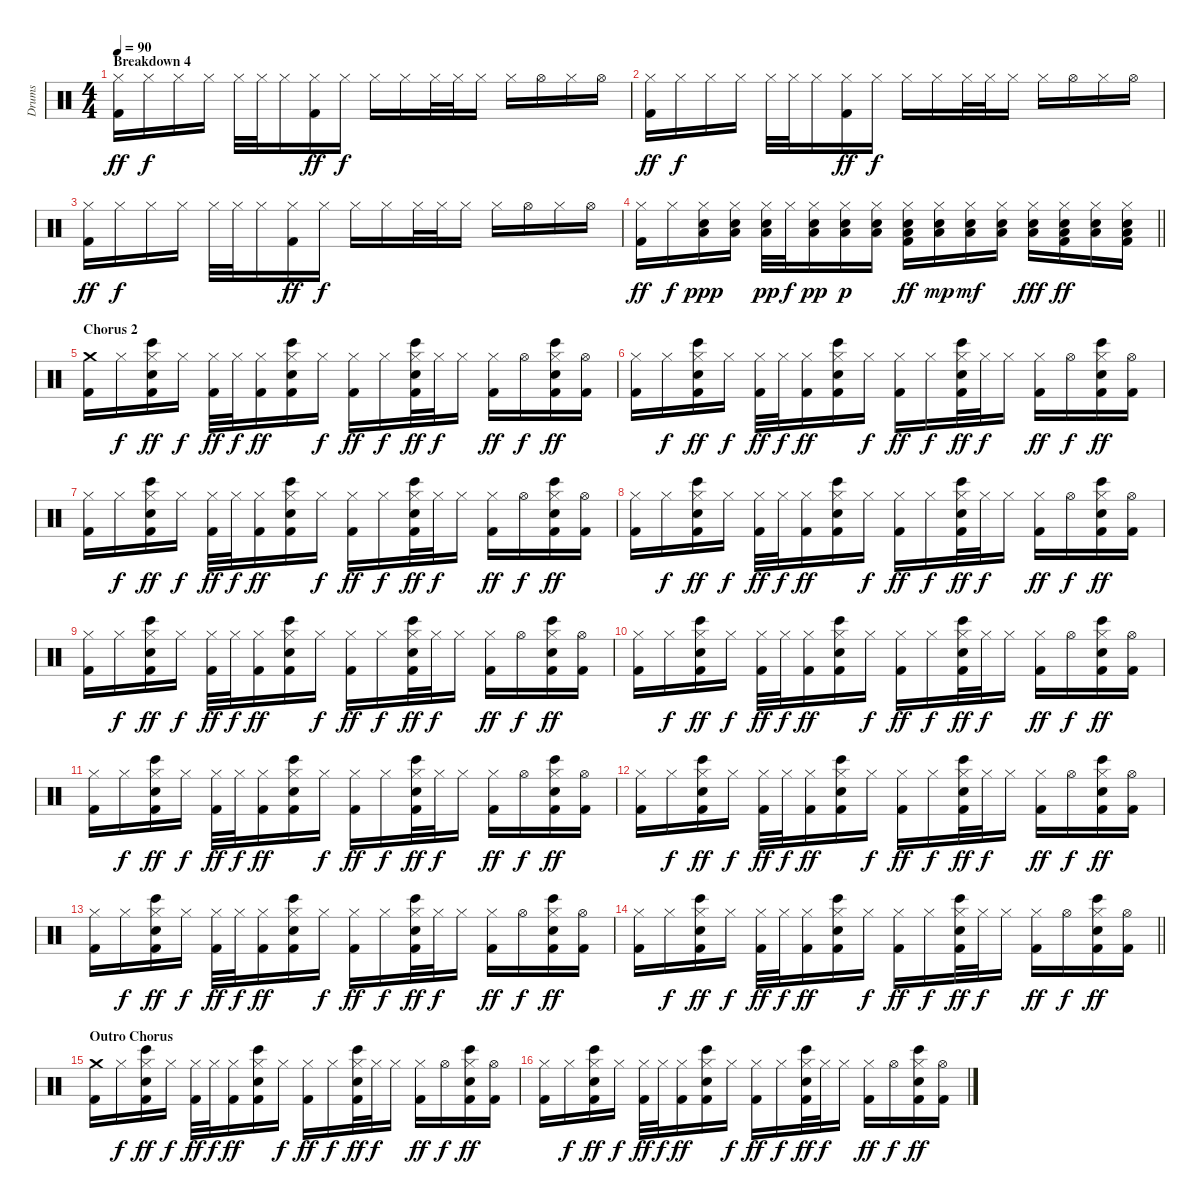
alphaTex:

\track ("Drums" "Drums") {instrument percussion}
\staff {score}
\articulation defaults
\ts (4 4)
\section ("" "Breakdown 4")
\tempo 90
\clef neutral
\ks c
("Hi-Hat (closed)" "Kick (hit) 2").16{dy ff} "Hi-Hat (closed)".16{dy f} "Hi-Hat (closed)".16 "Hi-Hat (closed)".16 "Hi-Hat (closed)".32 "Hi-Hat (closed)".32 "Hi-Hat (closed)".16 ("Hi-Hat (closed)" "Kick (hit) 2").16{dy ff} "Hi-Hat (closed)".16{dy f} "Hi-Hat (closed)".16 "Hi-Hat (closed)".16 "Hi-Hat (closed)".32 "Hi-Hat (closed)".32 "Hi-Hat (closed)".16 "Hi-Hat (closed)".16 "Hi-Hat (open)".16 "Hi-Hat (closed)".16 "Hi-Hat (open)".16 |
("Hi-Hat (closed)" "Kick (hit) 2").16{dy ff} "Hi-Hat (closed)".16{dy f} "Hi-Hat (closed)".16 "Hi-Hat (closed)".16 "Hi-Hat (closed)".32 "Hi-Hat (closed)".32 "Hi-Hat (closed)".16 ("Hi-Hat (closed)" "Kick (hit) 2").16{dy ff} "Hi-Hat (closed)".16{dy f} "Hi-Hat (closed)".16 "Hi-Hat (closed)".16 "Hi-Hat (closed)".32 "Hi-Hat (closed)".32 "Hi-Hat (closed)".16 "Hi-Hat (closed)".16 "Hi-Hat (open)".16 "Hi-Hat (closed)".16 "Hi-Hat (open)".16 |
("Hi-Hat (closed)" "Kick (hit) 2").16{dy ff} "Hi-Hat (closed)".16{dy f} "Hi-Hat (closed)".16 "Hi-Hat (closed)".16 "Hi-Hat (closed)".32 "Hi-Hat (closed)".32 "Hi-Hat (closed)".16 ("Hi-Hat (closed)" "Kick (hit) 2").16{dy ff} "Hi-Hat (closed)".16{dy f} "Hi-Hat (closed)".16 "Hi-Hat (closed)".16 "Hi-Hat (closed)".32 "Hi-Hat (closed)".32 "Hi-Hat (closed)".16 "Hi-Hat (closed)".16 "Hi-Hat (open)".16 "Hi-Hat (closed)".16 "Hi-Hat (open)".16 |
\barLineRight lightlight
("Hi-Hat (closed)" "Kick (hit) 2").16{dy ff} "Hi-Hat (closed)".16{dy f} ("Hi-Hat (closed)" "Low Tom (hit)" "Electric Snare (hit)").16{dy ppp} ("Hi-Hat (closed)" "Low Tom (hit)" "Electric Snare (hit)").16 ("Hi-Hat (closed)" "Low Tom (hit)" "Electric Snare (hit)").32{dy pp} "Hi-Hat (closed)".32{dy f} ("Hi-Hat (closed)" "Low Tom (hit)" "Electric Snare (hit)").16{dy pp} ("Hi-Hat (closed)" "Low Tom (hit)" "Electric Snare (hit)").16{dy p} ("Hi-Hat (closed)" "Low Tom (hit)" "Electric Snare (hit)").16 ("Hi-Hat (closed)" "Low Tom (hit)" "Electric Snare (hit)" "Kick (hit) 2").16{dy ff} ("Hi-Hat (closed)" "Low Tom (hit)" "Electric Snare (hit)").16{dy mp} ("Hi-Hat (closed)" "Low Tom (hit)" "Electric Snare (hit)").16{dy mf} ("Hi-Hat (closed)" "Low Tom (hit)" "Electric Snare (hit)").16 ("Hi-Hat (closed)" "Low Tom (hit)" "Electric Snare (hit)").16{dy fff volume 16} ("Hi-Hat (closed)" "Low Tom (hit)" "Electric Snare (hit)" "Kick (hit) 2").16{dy ff} ("Hi-Hat (closed)" "Low Tom (hit)" "Electric Snare (hit)").16 ("Hi-Hat (closed)" "Low Tom (hit)" "Electric Snare (hit)" "Kick (hit) 2").16 |
\section ("" "Chorus 2")
("Crash medium (hit)" "Kick (hit) 2").16{volume 14} "Hi-Hat (closed)".16{dy f} ("Hi-Hat (closed)" "Electric Snare (hit)" "Bongo High (hit)" "Kick (hit) 2").16{dy ff} "Hi-Hat (closed)".16{dy f} ("Hi-Hat (closed)" "Kick (hit) 2").32{dy ff} "Hi-Hat (closed)".32{dy f} ("Hi-Hat (closed)" "Kick (hit) 2").16{dy ff} ("Hi-Hat (closed)" "Electric Snare (hit)" "Bongo High (hit)" "Kick (hit) 2").16 "Hi-Hat (closed)".16{dy f} ("Hi-Hat (closed)" "Kick (hit) 2").16{dy ff} "Hi-Hat (closed)".16{dy f} ("Hi-Hat (closed)" "Electric Snare (hit)" "Bongo High (hit)" "Kick (hit) 2").32{dy ff} "Hi-Hat (closed)".32{dy f} "Hi-Hat (closed)".16 ("Hi-Hat (closed)" "Kick (hit) 2").16{dy ff} "Hi-Hat (open)".16{dy f} ("Hi-Hat (closed)" "Electric Snare (hit)" "Bongo High (hit)" "Kick (hit) 2").16{dy ff} ("Hi-Hat (open)" "Kick (hit) 2").16 |
("Hi-Hat (closed)" "Kick (hit) 2").16 "Hi-Hat (closed)".16{dy f} ("Hi-Hat (closed)" "Electric Snare (hit)" "Bongo High (hit)" "Kick (hit) 2").16{dy ff} "Hi-Hat (closed)".16{dy f} ("Hi-Hat (closed)" "Kick (hit) 2").32{dy ff} "Hi-Hat (closed)".32{dy f} ("Hi-Hat (closed)" "Kick (hit) 2").16{dy ff} ("Hi-Hat (closed)" "Electric Snare (hit)" "Bongo High (hit)" "Kick (hit) 2").16 "Hi-Hat (closed)".16{dy f} ("Hi-Hat (closed)" "Kick (hit) 2").16{dy ff} "Hi-Hat (closed)".16{dy f} ("Hi-Hat (closed)" "Electric Snare (hit)" "Bongo High (hit)" "Kick (hit) 2").32{dy ff} "Hi-Hat (closed)".32{dy f} "Hi-Hat (closed)".16 ("Hi-Hat (closed)" "Kick (hit) 2").16{dy ff} "Hi-Hat (open)".16{dy f} ("Hi-Hat (closed)" "Electric Snare (hit)" "Bongo High (hit)" "Kick (hit) 2").16{dy ff} ("Hi-Hat (open)" "Kick (hit) 2").16 |
("Hi-Hat (closed)" "Kick (hit) 2").16 "Hi-Hat (closed)".16{dy f} ("Hi-Hat (closed)" "Electric Snare (hit)" "Bongo High (hit)" "Kick (hit) 2").16{dy ff} "Hi-Hat (closed)".16{dy f} ("Hi-Hat (closed)" "Kick (hit) 2").32{dy ff} "Hi-Hat (closed)".32{dy f} ("Hi-Hat (closed)" "Kick (hit) 2").16{dy ff} ("Hi-Hat (closed)" "Electric Snare (hit)" "Bongo High (hit)" "Kick (hit) 2").16 "Hi-Hat (closed)".16{dy f} ("Hi-Hat (closed)" "Kick (hit) 2").16{dy ff} "Hi-Hat (closed)".16{dy f} ("Hi-Hat (closed)" "Electric Snare (hit)" "Bongo High (hit)" "Kick (hit) 2").32{dy ff} "Hi-Hat (closed)".32{dy f} "Hi-Hat (closed)".16 ("Hi-Hat (closed)" "Kick (hit) 2").16{dy ff} "Hi-Hat (open)".16{dy f} ("Hi-Hat (closed)" "Electric Snare (hit)" "Bongo High (hit)" "Kick (hit) 2").16{dy ff} ("Hi-Hat (open)" "Kick (hit) 2").16 |
("Hi-Hat (closed)" "Kick (hit) 2").16 "Hi-Hat (closed)".16{dy f} ("Hi-Hat (closed)" "Electric Snare (hit)" "Bongo High (hit)" "Kick (hit) 2").16{dy ff} "Hi-Hat (closed)".16{dy f} ("Hi-Hat (closed)" "Kick (hit) 2").32{dy ff} "Hi-Hat (closed)".32{dy f} ("Hi-Hat (closed)" "Kick (hit) 2").16{dy ff} ("Hi-Hat (closed)" "Electric Snare (hit)" "Bongo High (hit)" "Kick (hit) 2").16 "Hi-Hat (closed)".16{dy f} ("Hi-Hat (closed)" "Kick (hit) 2").16{dy ff} "Hi-Hat (closed)".16{dy f} ("Hi-Hat (closed)" "Electric Snare (hit)" "Bongo High (hit)" "Kick (hit) 2").32{dy ff} "Hi-Hat (closed)".32{dy f} "Hi-Hat (closed)".16 ("Hi-Hat (closed)" "Kick (hit) 2").16{dy ff} "Hi-Hat (open)".16{dy f} ("Hi-Hat (closed)" "Electric Snare (hit)" "Bongo High (hit)" "Kick (hit) 2").16{dy ff} ("Hi-Hat (open)" "Kick (hit) 2").16 |
("Hi-Hat (closed)" "Kick (hit) 2").16 "Hi-Hat (closed)".16{dy f} ("Hi-Hat (closed)" "Electric Snare (hit)" "Bongo High (hit)" "Kick (hit) 2").16{dy ff} "Hi-Hat (closed)".16{dy f} ("Hi-Hat (closed)" "Kick (hit) 2").32{dy ff} "Hi-Hat (closed)".32{dy f} ("Hi-Hat (closed)" "Kick (hit) 2").16{dy ff} ("Hi-Hat (closed)" "Electric Snare (hit)" "Bongo High (hit)" "Kick (hit) 2").16 "Hi-Hat (closed)".16{dy f} ("Hi-Hat (closed)" "Kick (hit) 2").16{dy ff} "Hi-Hat (closed)".16{dy f} ("Hi-Hat (closed)" "Electric Snare (hit)" "Bongo High (hit)" "Kick (hit) 2").32{dy ff} "Hi-Hat (closed)".32{dy f} "Hi-Hat (closed)".16 ("Hi-Hat (closed)" "Kick (hit) 2").16{dy ff} "Hi-Hat (open)".16{dy f} ("Hi-Hat (closed)" "Electric Snare (hit)" "Bongo High (hit)" "Kick (hit) 2").16{dy ff} ("Hi-Hat (open)" "Kick (hit) 2").16 |
("Hi-Hat (closed)" "Kick (hit) 2").16 "Hi-Hat (closed)".16{dy f} ("Hi-Hat (closed)" "Electric Snare (hit)" "Bongo High (hit)" "Kick (hit) 2").16{dy ff} "Hi-Hat (closed)".16{dy f} ("Hi-Hat (closed)" "Kick (hit) 2").32{dy ff} "Hi-Hat (closed)".32{dy f} ("Hi-Hat (closed)" "Kick (hit) 2").16{dy ff} ("Hi-Hat (closed)" "Electric Snare (hit)" "Bongo High (hit)" "Kick (hit) 2").16 "Hi-Hat (closed)".16{dy f} ("Hi-Hat (closed)" "Kick (hit) 2").16{dy ff} "Hi-Hat (closed)".16{dy f} ("Hi-Hat (closed)" "Electric Snare (hit)" "Bongo High (hit)" "Kick (hit) 2").32{dy ff} "Hi-Hat (closed)".32{dy f} "Hi-Hat (closed)".16 ("Hi-Hat (closed)" "Kick (hit) 2").16{dy ff} "Hi-Hat (open)".16{dy f} ("Hi-Hat (closed)" "Electric Snare (hit)" "Bongo High (hit)" "Kick (hit) 2").16{dy ff} ("Hi-Hat (open)" "Kick (hit) 2").16 |
("Hi-Hat (closed)" "Kick (hit) 2").16 "Hi-Hat (closed)".16{dy f} ("Hi-Hat (closed)" "Electric Snare (hit)" "Bongo High (hit)" "Kick (hit) 2").16{dy ff} "Hi-Hat (closed)".16{dy f} ("Hi-Hat (closed)" "Kick (hit) 2").32{dy ff} "Hi-Hat (closed)".32{dy f} ("Hi-Hat (closed)" "Kick (hit) 2").16{dy ff} ("Hi-Hat (closed)" "Electric Snare (hit)" "Bongo High (hit)" "Kick (hit) 2").16 "Hi-Hat (closed)".16{dy f} ("Hi-Hat (closed)" "Kick (hit) 2").16{dy ff} "Hi-Hat (closed)".16{dy f} ("Hi-Hat (closed)" "Electric Snare (hit)" "Bongo High (hit)" "Kick (hit) 2").32{dy ff} "Hi-Hat (closed)".32{dy f} "Hi-Hat (closed)".16 ("Hi-Hat (closed)" "Kick (hit) 2").16{dy ff} "Hi-Hat (open)".16{dy f} ("Hi-Hat (closed)" "Electric Snare (hit)" "Bongo High (hit)" "Kick (hit) 2").16{dy ff} ("Hi-Hat (open)" "Kick (hit) 2").16 |
("Hi-Hat (closed)" "Kick (hit) 2").16 "Hi-Hat (closed)".16{dy f} ("Hi-Hat (closed)" "Electric Snare (hit)" "Bongo High (hit)" "Kick (hit) 2").16{dy ff} "Hi-Hat (closed)".16{dy f} ("Hi-Hat (closed)" "Kick (hit) 2").32{dy ff} "Hi-Hat (closed)".32{dy f} ("Hi-Hat (closed)" "Kick (hit) 2").16{dy ff} ("Hi-Hat (closed)" "Electric Snare (hit)" "Bongo High (hit)" "Kick (hit) 2").16 "Hi-Hat (closed)".16{dy f} ("Hi-Hat (closed)" "Kick (hit) 2").16{dy ff} "Hi-Hat (closed)".16{dy f} ("Hi-Hat (closed)" "Electric Snare (hit)" "Bongo High (hit)" "Kick (hit) 2").32{dy ff} "Hi-Hat (closed)".32{dy f} "Hi-Hat (closed)".16 ("Hi-Hat (closed)" "Kick (hit) 2").16{dy ff} "Hi-Hat (open)".16{dy f} ("Hi-Hat (closed)" "Electric Snare (hit)" "Bongo High (hit)" "Kick (hit) 2").16{dy ff} ("Hi-Hat (open)" "Kick (hit) 2").16 |
("Hi-Hat (closed)" "Kick (hit) 2").16 "Hi-Hat (closed)".16{dy f} ("Hi-Hat (closed)" "Electric Snare (hit)" "Bongo High (hit)" "Kick (hit) 2").16{dy ff} "Hi-Hat (closed)".16{dy f} ("Hi-Hat (closed)" "Kick (hit) 2").32{dy ff} "Hi-Hat (closed)".32{dy f} ("Hi-Hat (closed)" "Kick (hit) 2").16{dy ff} ("Hi-Hat (closed)" "Electric Snare (hit)" "Bongo High (hit)" "Kick (hit) 2").16 "Hi-Hat (closed)".16{dy f} ("Hi-Hat (closed)" "Kick (hit) 2").16{dy ff} "Hi-Hat (closed)".16{dy f} ("Hi-Hat (closed)" "Electric Snare (hit)" "Bongo High (hit)" "Kick (hit) 2").32{dy ff} "Hi-Hat (closed)".32{dy f} "Hi-Hat (closed)".16 ("Hi-Hat (closed)" "Kick (hit) 2").16{dy ff} "Hi-Hat (open)".16{dy f} ("Hi-Hat (closed)" "Electric Snare (hit)" "Bongo High (hit)" "Kick (hit) 2").16{dy ff} ("Hi-Hat (open)" "Kick (hit) 2").16 |
\barLineRight lightlight
("Hi-Hat (closed)" "Kick (hit) 2").16 "Hi-Hat (closed)".16{dy f} ("Hi-Hat (closed)" "Electric Snare (hit)" "Bongo High (hit)" "Kick (hit) 2").16{dy ff} "Hi-Hat (closed)".16{dy f} ("Hi-Hat (closed)" "Kick (hit) 2").32{dy ff} "Hi-Hat (closed)".32{dy f} ("Hi-Hat (closed)" "Kick (hit) 2").16{dy ff} ("Hi-Hat (closed)" "Electric Snare (hit)" "Bongo High (hit)" "Kick (hit) 2").16 "Hi-Hat (closed)".16{dy f} ("Hi-Hat (closed)" "Kick (hit) 2").16{dy ff} "Hi-Hat (closed)".16{dy f} ("Hi-Hat (closed)" "Electric Snare (hit)" "Bongo High (hit)" "Kick (hit) 2").32{dy ff} "Hi-Hat (closed)".32{dy f} "Hi-Hat (closed)".16 ("Hi-Hat (closed)" "Kick (hit) 2").16{dy ff} "Hi-Hat (open)".16{dy f} ("Hi-Hat (closed)" "Electric Snare (hit)" "Bongo High (hit)" "Kick (hit) 2").16{dy ff} ("Hi-Hat (open)" "Kick (hit) 2").16 |
\section ("" "Outro Chorus")
("Crash medium (hit)" "Kick (hit) 2").16 "Hi-Hat (closed)".16{dy f} ("Hi-Hat (closed)" "Electric Snare (hit)" "Bongo High (hit)" "Kick (hit) 2").16{dy ff} "Hi-Hat (closed)".16{dy f} ("Hi-Hat (closed)" "Kick (hit) 2").32{dy ff} "Hi-Hat (closed)".32{dy f} ("Hi-Hat (closed)" "Kick (hit) 2").16{dy ff} ("Hi-Hat (closed)" "Electric Snare (hit)" "Bongo High (hit)" "Kick (hit) 2").16 "Hi-Hat (closed)".16{dy f} ("Hi-Hat (closed)" "Kick (hit) 2").16{dy ff} "Hi-Hat (closed)".16{dy f} ("Hi-Hat (closed)" "Electric Snare (hit)" "Bongo High (hit)" "Kick (hit) 2").32{dy ff} "Hi-Hat (closed)".32{dy f} "Hi-Hat (closed)".16 ("Hi-Hat (closed)" "Kick (hit) 2").16{dy ff} "Hi-Hat (open)".16{dy f} ("Hi-Hat (closed)" "Electric Snare (hit)" "Bongo High (hit)" "Kick (hit) 2").16{dy ff} ("Hi-Hat (open)" "Kick (hit) 2").16 |
("Hi-Hat (closed)" "Kick (hit) 2").16 "Hi-Hat (closed)".16{dy f} ("Hi-Hat (closed)" "Electric Snare (hit)" "Bongo High (hit)" "Kick (hit) 2").16{dy ff} "Hi-Hat (closed)".16{dy f} ("Hi-Hat (closed)" "Kick (hit) 2").32{dy ff} "Hi-Hat (closed)".32{dy f} ("Hi-Hat (closed)" "Kick (hit) 2").16{dy ff} ("Hi-Hat (closed)" "Electric Snare (hit)" "Bongo High (hit)" "Kick (hit) 2").16 "Hi-Hat (closed)".16{dy f} ("Hi-Hat (closed)" "Kick (hit) 2").16{dy ff} "Hi-Hat (closed)".16{dy f} ("Hi-Hat (closed)" "Electric Snare (hit)" "Bongo High (hit)" "Kick (hit) 2").32{dy ff} "Hi-Hat (closed)".32{dy f} "Hi-Hat (closed)".16 ("Hi-Hat (closed)" "Kick (hit) 2").16{dy ff} "Hi-Hat (open)".16{dy f} ("Hi-Hat (closed)" "Electric Snare (hit)" "Bongo High (hit)" "Kick (hit) 2").16{dy ff} ("Hi-Hat (open)" "Kick (hit) 2").16
